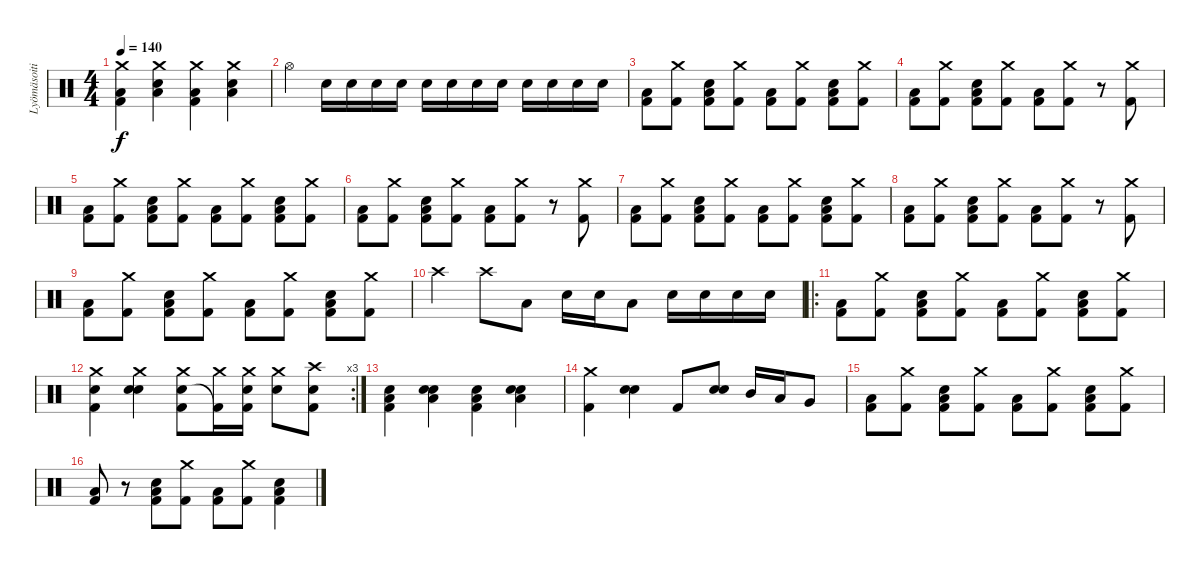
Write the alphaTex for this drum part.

\track ("Lyömäsoitin" "Lyömäsoiti") {instrument percussion}
\staff {score}
\articulation defaults
\ts (4 4)
\tempo 140
\clef neutral
\ks c
("Crash medium (hit)" "Low Floor Tom (hit)" "Kick (hit) 2").4{dy f} ("Crash medium (hit)" "Low Floor Tom (hit)" "Snare (hit) 2").4 ("Crash medium (hit)" "Low Floor Tom (hit)" "Kick (hit) 2").4 ("Crash medium (hit)" "Low Floor Tom (hit)" "Snare (hit) 2").4 |
"Hi-Hat (open)".4 "Snare (hit) 2".16 "Snare (hit) 2".16 "Snare (hit) 2".16 "Snare (hit) 2".16 "Snare (hit) 2".16 "Snare (hit) 2".16 "Electric Snare (hit)".16 "Electric Snare (hit)".16 "Electric Snare (hit)".16 "Electric Snare (hit)".16 "Electric Snare (hit)".16 "Electric Snare (hit)".16 |
("Low Floor Tom (hit)" "Kick (hit) 2").8 ("Crash medium (hit)" "Kick (hit) 2").8 ("Low Floor Tom (hit)" "Snare (hit) 2" "Kick (hit) 2").8 ("Crash medium (hit)" "Kick (hit) 2").8 ("Low Floor Tom (hit)" "Kick (hit) 2").8 ("Crash medium (hit)" "Kick (hit) 2").8 ("Low Floor Tom (hit)" "Snare (hit) 2" "Kick (hit) 2").8 ("Crash medium (hit)" "Kick (hit) 2").8 |
("Low Floor Tom (hit)" "Kick (hit) 2").8 ("Crash medium (hit)" "Kick (hit) 2").8 ("Low Floor Tom (hit)" "Snare (hit) 2" "Kick (hit) 2").8 ("Crash medium (hit)" "Kick (hit) 2").8 ("Low Floor Tom (hit)" "Kick (hit) 2").8 ("Crash medium (hit)" "Kick (hit) 2").8 r.8 ("Crash medium (hit)" "Kick (hit) 2").8 |
("Low Floor Tom (hit)" "Kick (hit) 2").8 ("Crash medium (hit)" "Kick (hit) 2").8 ("Low Floor Tom (hit)" "Snare (hit) 2" "Kick (hit) 2").8 ("Crash medium (hit)" "Kick (hit) 2").8 ("Low Floor Tom (hit)" "Kick (hit) 2").8 ("Crash medium (hit)" "Kick (hit) 2").8 ("Low Floor Tom (hit)" "Snare (hit) 2" "Kick (hit) 2").8 ("Crash medium (hit)" "Kick (hit) 2").8 |
("Low Floor Tom (hit)" "Kick (hit) 2").8 ("Crash medium (hit)" "Kick (hit) 2").8 ("Low Floor Tom (hit)" "Snare (hit) 2" "Kick (hit) 2").8 ("Crash medium (hit)" "Kick (hit) 2").8 ("Low Floor Tom (hit)" "Kick (hit) 2").8 ("Crash medium (hit)" "Kick (hit) 2").8 r.8 ("Crash medium (hit)" "Kick (hit) 2").8 |
("Low Floor Tom (hit)" "Kick (hit) 2").8 ("Crash medium (hit)" "Kick (hit) 2").8 ("Low Floor Tom (hit)" "Snare (hit) 2" "Kick (hit) 2").8 ("Crash medium (hit)" "Kick (hit) 2").8 ("Low Floor Tom (hit)" "Kick (hit) 2").8 ("Crash medium (hit)" "Kick (hit) 2").8 ("Low Floor Tom (hit)" "Snare (hit) 2" "Kick (hit) 2").8 ("Crash medium (hit)" "Kick (hit) 2").8 |
("Low Floor Tom (hit)" "Kick (hit) 2").8 ("Crash medium (hit)" "Kick (hit) 2").8 ("Low Floor Tom (hit)" "Snare (hit) 2" "Kick (hit) 2").8 ("Crash medium (hit)" "Kick (hit) 2").8 ("Low Floor Tom (hit)" "Kick (hit) 2").8 ("Crash medium (hit)" "Kick (hit) 2").8 r.8 ("Crash medium (hit)" "Kick (hit) 2").8 |
("Low Floor Tom (hit)" "Kick (hit) 2").8 ("Crash medium (hit)" "Kick (hit) 2").8 ("Low Floor Tom (hit)" "Snare (hit) 2" "Kick (hit) 2").8 ("Crash medium (hit)" "Kick (hit) 2").8 ("Low Floor Tom (hit)" "Kick (hit) 2").8 ("Crash medium (hit)" "Kick (hit) 2").8 ("Low Floor Tom (hit)" "Snare (hit) 2" "Kick (hit) 2").8 ("Crash medium (hit)" "Kick (hit) 2").8 |
"Crash high (hit)".4 "Crash high (hit)".8 "Low Tom (hit)".8 "Snare (hit) 2".16 "Snare (hit) 2".16 "Low Tom (hit)".8 "Snare (hit) 2".16 "Snare (hit) 2".16 "Snare (hit) 2".16 "Snare (hit) 2".16 |
\ro
("Low Floor Tom (hit)" "Kick (hit) 2").8 ("Crash medium (hit)" "Kick (hit) 2").8 ("Low Floor Tom (hit)" "Snare (hit) 2" "Kick (hit) 2").8 ("Crash medium (hit)" "Kick (hit) 2").8 ("Low Floor Tom (hit)" "Kick (hit) 2").8 ("Crash medium (hit)" "Kick (hit) 2").8 ("Low Floor Tom (hit)" "Snare (hit) 2" "Kick (hit) 2").8 ("Crash medium (hit)" "Kick (hit) 2").8 |
\rc 3
("Crash medium (hit)" "Electric Snare (hit)" "Kick (hit) 2").4 ("Crash medium (hit)" "Electric Snare (hit)" "Snare (hit) 2").4 ("Crash medium (hit)" "Electric Snare (hit)" "Kick (hit) 2").8 ("Crash medium (hit)" "Kick (hit) 2"{t}).16 ("Crash medium (hit)" "Electric Snare (hit)" "Kick (hit) 2").16 ("Crash medium (hit)" "Snare (hit) 2").8 ("Crash high (hit)" "Electric Snare (hit)" "Kick (hit) 2").8 |
("Electric Snare (hit)" "Low Floor Tom (hit)" "Kick (hit) 2").4 ("Electric Snare (hit)" "Low Floor Tom (hit)" "Snare (hit) 2").4 ("Electric Snare (hit)" "Low Floor Tom (hit)" "Kick (hit) 2").4 ("Electric Snare (hit)" "Low Floor Tom (hit)" "Snare (hit) 2").4 |
("Crash medium (hit)" "Kick (hit) 2").4 ("Electric Snare (hit)" "Snare (hit) 2").4 "Kick (hit) 2".8 ("Electric Snare (hit)" "Snare (hit) 2").8 "Mid Tom (hit)".16 "Low Tom (hit)".16 "Very Low Tom (hit)".8 |
("Low Floor Tom (hit)" "Kick (hit) 2").8 ("Crash medium (hit)" "Kick (hit) 2").8 ("Low Floor Tom (hit)" "Snare (hit) 2" "Kick (hit) 2").8 ("Crash medium (hit)" "Kick (hit) 2").8 ("Low Floor Tom (hit)" "Kick (hit) 2").8 ("Crash medium (hit)" "Kick (hit) 2").8 ("Low Floor Tom (hit)" "Snare (hit) 2" "Kick (hit) 2").8 ("Crash medium (hit)" "Kick (hit) 2").8 |
("Low Floor Tom (hit)" "Kick (hit) 2").8 r.8 ("Low Floor Tom (hit)" "Snare (hit) 2" "Kick (hit) 2").8 ("Crash medium (hit)" "Kick (hit) 2").8 ("Low Floor Tom (hit)" "Kick (hit) 2").8 ("Crash medium (hit)" "Kick (hit) 2").8 ("Low Floor Tom (hit)" "Snare (hit) 2" "Kick (hit) 2").4
